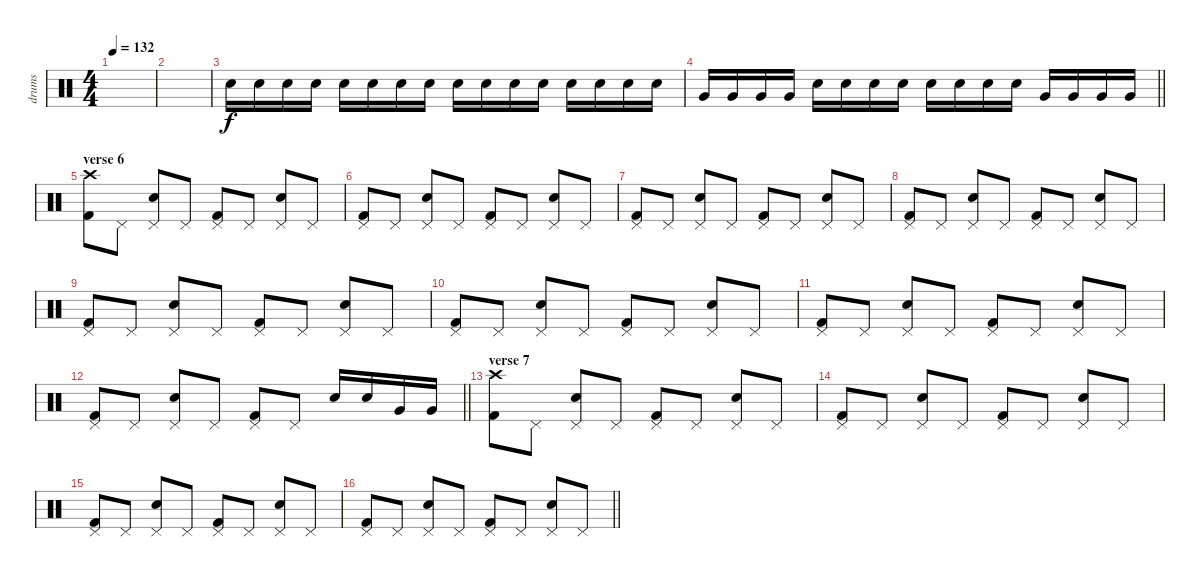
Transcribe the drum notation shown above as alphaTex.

\track ("drums" "drums") {instrument percussion}
\staff {score}
\articulation defaults
\ts (4 4)
\tempo 132
\clef neutral
\ks c
|
|
"Electric Snare (hit)".16 "Electric Snare (hit)".16 "Electric Snare (hit)".16 "Electric Snare (hit)".16 "Electric Snare (hit)".16 "Electric Snare (hit)".16 "Electric Snare (hit)".16 "Electric Snare (hit)".16 "Electric Snare (hit)".16 "Electric Snare (hit)".16 "Electric Snare (hit)".16 "Electric Snare (hit)".16 "Electric Snare (hit)".16 "Electric Snare (hit)".16 "Electric Snare (hit)".16 "Electric Snare (hit)".16 |
\barLineRight lightlight "Very Low Tom (hit)".16 "Very Low Tom (hit)".16 "Very Low Tom (hit)".16 "Very Low Tom (hit)".16 "Electric Snare (hit)".16 "Electric Snare (hit)".16 "Electric Snare (hit)".16 "Electric Snare (hit)".16 "Electric Snare (hit)".16 "Electric Snare (hit)".16 "Electric Snare (hit)".16 "Electric Snare (hit)".16 "Very Low Tom (hit)".16 "Very Low Tom (hit)".16 "Very Low Tom (hit)".16 "Very Low Tom (hit)".16
|
\section ("" "verse 6")
("Kick (hit) 2" "Crash high (hit)").8 "Pedal Hi-Hat (hit)".8 ("Electric Snare (hit)" "Pedal Hi-Hat (hit)").8 "Pedal Hi-Hat (hit)".8 ("Kick (hit) 2" "Pedal Hi-Hat (hit)").8 "Pedal Hi-Hat (hit)".8 ("Electric Snare (hit)" "Pedal Hi-Hat (hit)").8 "Pedal Hi-Hat (hit)".8 |
("Kick (hit) 2" "Pedal Hi-Hat (hit)").8 "Pedal Hi-Hat (hit)".8 ("Electric Snare (hit)" "Pedal Hi-Hat (hit)").8 "Pedal Hi-Hat (hit)".8 ("Kick (hit) 2" "Pedal Hi-Hat (hit)").8 "Pedal Hi-Hat (hit)".8 ("Electric Snare (hit)" "Pedal Hi-Hat (hit)").8 "Pedal Hi-Hat (hit)".8 |
("Kick (hit) 2" "Pedal Hi-Hat (hit)").8 "Pedal Hi-Hat (hit)".8 ("Electric Snare (hit)" "Pedal Hi-Hat (hit)").8 "Pedal Hi-Hat (hit)".8 ("Kick (hit) 2" "Pedal Hi-Hat (hit)").8 "Pedal Hi-Hat (hit)".8 ("Electric Snare (hit)" "Pedal Hi-Hat (hit)").8 "Pedal Hi-Hat (hit)".8 |
("Kick (hit) 2" "Pedal Hi-Hat (hit)").8 "Pedal Hi-Hat (hit)".8 ("Electric Snare (hit)" "Pedal Hi-Hat (hit)").8 "Pedal Hi-Hat (hit)".8 ("Kick (hit) 2" "Pedal Hi-Hat (hit)").8 "Pedal Hi-Hat (hit)".8 ("Electric Snare (hit)" "Pedal Hi-Hat (hit)").8 "Pedal Hi-Hat (hit)".8 |
("Kick (hit) 2" "Pedal Hi-Hat (hit)").8 "Pedal Hi-Hat (hit)".8 ("Electric Snare (hit)" "Pedal Hi-Hat (hit)").8 "Pedal Hi-Hat (hit)".8 ("Kick (hit) 2" "Pedal Hi-Hat (hit)").8 "Pedal Hi-Hat (hit)".8 ("Electric Snare (hit)" "Pedal Hi-Hat (hit)").8 "Pedal Hi-Hat (hit)".8 |
("Kick (hit) 2" "Pedal Hi-Hat (hit)").8 "Pedal Hi-Hat (hit)".8 ("Electric Snare (hit)" "Pedal Hi-Hat (hit)").8 "Pedal Hi-Hat (hit)".8 ("Kick (hit) 2" "Pedal Hi-Hat (hit)").8 "Pedal Hi-Hat (hit)".8 ("Electric Snare (hit)" "Pedal Hi-Hat (hit)").8 "Pedal Hi-Hat (hit)".8 |
("Kick (hit) 2" "Pedal Hi-Hat (hit)").8 "Pedal Hi-Hat (hit)".8 ("Electric Snare (hit)" "Pedal Hi-Hat (hit)").8 "Pedal Hi-Hat (hit)".8 ("Kick (hit) 2" "Pedal Hi-Hat (hit)").8 "Pedal Hi-Hat (hit)".8 ("Electric Snare (hit)" "Pedal Hi-Hat (hit)").8 "Pedal Hi-Hat (hit)".8 |
\barLineRight lightlight
("Kick (hit) 2" "Pedal Hi-Hat (hit)").8 "Pedal Hi-Hat (hit)".8 ("Electric Snare (hit)" "Pedal Hi-Hat (hit)").8 "Pedal Hi-Hat (hit)".8 ("Kick (hit) 2" "Pedal Hi-Hat (hit)").8 "Pedal Hi-Hat (hit)".8 "Electric Snare (hit)".16 "Electric Snare (hit)".16 "Very Low Tom (hit)".16 "Very Low Tom (hit)".16 |
\section ("" "verse 7")
("Kick (hit) 2" "Crash high (hit)").8 "Pedal Hi-Hat (hit)".8 ("Electric Snare (hit)" "Pedal Hi-Hat (hit)").8 "Pedal Hi-Hat (hit)".8 ("Kick (hit) 2" "Pedal Hi-Hat (hit)").8 "Pedal Hi-Hat (hit)".8 ("Electric Snare (hit)" "Pedal Hi-Hat (hit)").8 "Pedal Hi-Hat (hit)".8 |
("Kick (hit) 2" "Pedal Hi-Hat (hit)").8 "Pedal Hi-Hat (hit)".8 ("Electric Snare (hit)" "Pedal Hi-Hat (hit)").8 "Pedal Hi-Hat (hit)".8 ("Kick (hit) 2" "Pedal Hi-Hat (hit)").8 "Pedal Hi-Hat (hit)".8 ("Electric Snare (hit)" "Pedal Hi-Hat (hit)").8 "Pedal Hi-Hat (hit)".8 |
("Kick (hit) 2" "Pedal Hi-Hat (hit)").8 "Pedal Hi-Hat (hit)".8 ("Electric Snare (hit)" "Pedal Hi-Hat (hit)").8 "Pedal Hi-Hat (hit)".8 ("Kick (hit) 2" "Pedal Hi-Hat (hit)").8 "Pedal Hi-Hat (hit)".8 ("Electric Snare (hit)" "Pedal Hi-Hat (hit)").8 "Pedal Hi-Hat (hit)".8 |
\barLineRight lightlight
("Kick (hit) 2" "Pedal Hi-Hat (hit)").8 "Pedal Hi-Hat (hit)".8 ("Electric Snare (hit)" "Pedal Hi-Hat (hit)").8 "Pedal Hi-Hat (hit)".8 ("Kick (hit) 2" "Pedal Hi-Hat (hit)").8 "Pedal Hi-Hat (hit)".8 ("Electric Snare (hit)" "Pedal Hi-Hat (hit)").8 "Pedal Hi-Hat (hit)".8
